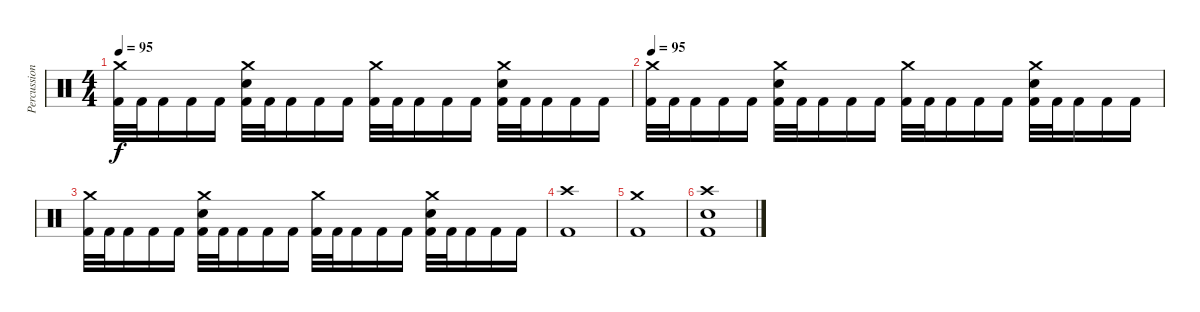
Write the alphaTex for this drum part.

\track ("Percussion" "Percussion") {instrument percussion}
\staff {score}
\articulation defaults
\ts (4 4)
\tempo 95
\clef neutral
\ks c
("Crash medium (hit)" "Kick (hit) 2").32{dy f} "Kick (hit) 2".32 "Kick (hit) 2".16 "Kick (hit) 2".16 "Kick (hit) 2".16 ("Crash medium (hit)" "Electric Snare (hit)" "Kick (hit) 2").32 "Kick (hit) 2".32 "Kick (hit) 2".16 "Kick (hit) 2".16 "Kick (hit) 2".16 ("Crash medium (hit)" "Kick (hit) 2").32 "Kick (hit) 2".32 "Kick (hit) 2".16 "Kick (hit) 2".16 "Kick (hit) 2".16 ("Crash medium (hit)" "Electric Snare (hit)" "Kick (hit) 2").32 "Kick (hit) 2".32 "Kick (hit) 2".16 "Kick (hit) 2".16 "Kick (hit) 2".16 |
\tempo 95
("Crash medium (hit)" "Kick (hit) 2").32 "Kick (hit) 2".32 "Kick (hit) 2".16 "Kick (hit) 2".16 "Kick (hit) 2".16 ("Crash medium (hit)" "Electric Snare (hit)" "Kick (hit) 2").32 "Kick (hit) 2".32 "Kick (hit) 2".16 "Kick (hit) 2".16 "Kick (hit) 2".16 ("Crash medium (hit)" "Kick (hit) 2").32 "Kick (hit) 2".32 "Kick (hit) 2".16 "Kick (hit) 2".16 "Kick (hit) 2".16 ("Crash medium (hit)" "Electric Snare (hit)" "Kick (hit) 2").32 "Kick (hit) 2".32 "Kick (hit) 2".16 "Kick (hit) 2".16 "Kick (hit) 2".16 |
("Crash medium (hit)" "Kick (hit) 2").32 "Kick (hit) 2".32 "Kick (hit) 2".16 "Kick (hit) 2".16 "Kick (hit) 2".16 ("Crash medium (hit)" "Electric Snare (hit)" "Kick (hit) 2").32 "Kick (hit) 2".32 "Kick (hit) 2".16 "Kick (hit) 2".16 "Kick (hit) 2".16 ("Crash medium (hit)" "Kick (hit) 2").32 "Kick (hit) 2".32 "Kick (hit) 2".16 "Kick (hit) 2".16 "Kick (hit) 2".16 ("Crash medium (hit)" "Electric Snare (hit)" "Kick (hit) 2").32 "Kick (hit) 2".32 "Kick (hit) 2".16 "Kick (hit) 2".16 "Kick (hit) 2".16 |
("Crash high (hit)" "Kick (hit) 2").1 |
("Crash medium (hit)" "Kick (hit) 2").1 |
("Crash high (hit)" "Electric Snare (hit)" "Kick (hit) 2").1
